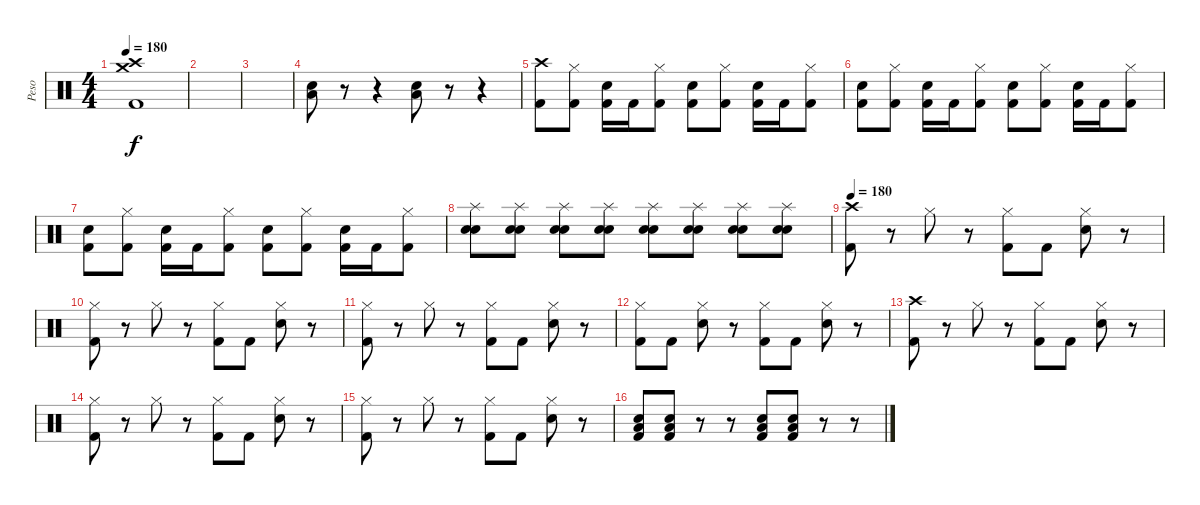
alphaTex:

\track ("Peso" "Peso") {instrument percussion}
\staff {score}
\articulation defaults
\ts (4 4)
\tempo 180
\clef neutral
\ks c
("Crash high (hit)" "Crash medium (hit)" "Kick (hit) 2").1{dy f} |
|
|
("Low Floor Tom (hit)" "Snare (hit) 2").8 r.8 r.4 ("Low Floor Tom (hit)" "Snare (hit) 2").8 r.8 r.4 |
("Crash high (hit)" "Kick (hit) 2").8 ("Hi-Hat (closed)" "Kick (hit) 2").8 ("Snare (hit) 2" "Kick (hit) 2").16 "Kick (hit) 2".16 ("Hi-Hat (closed)" "Kick (hit) 2").8 ("Snare (hit) 2" "Kick (hit) 2").8 ("Hi-Hat (closed)" "Kick (hit) 2").8 ("Snare (hit) 2" "Kick (hit) 2").16 "Kick (hit) 2".16 ("Hi-Hat (closed)" "Kick (hit) 2").8 |
("Snare (hit) 2" "Kick (hit) 2").8 ("Hi-Hat (closed)" "Kick (hit) 2").8 ("Snare (hit) 2" "Kick (hit) 2").16 "Kick (hit) 2".16 ("Hi-Hat (closed)" "Kick (hit) 2").8 ("Snare (hit) 2" "Kick (hit) 2").8 ("Hi-Hat (closed)" "Kick (hit) 2").8 ("Snare (hit) 2" "Kick (hit) 2").16 "Kick (hit) 2".16 ("Hi-Hat (closed)" "Kick (hit) 2").8 |
("Snare (hit) 2" "Kick (hit) 2").8 ("Hi-Hat (closed)" "Kick (hit) 2").8 ("Snare (hit) 2" "Kick (hit) 2").16 "Kick (hit) 2".16 ("Hi-Hat (closed)" "Kick (hit) 2").8 ("Snare (hit) 2" "Kick (hit) 2").8 ("Hi-Hat (closed)" "Kick (hit) 2").8 ("Snare (hit) 2" "Kick (hit) 2").16 "Kick (hit) 2".16 ("Hi-Hat (closed)" "Kick (hit) 2").8 |
("Splash (hit)" "Snare (hit) 2" "Snare (hit) 2").8 ("Splash (hit)" "Snare (hit) 2" "Snare (hit) 2").8 ("Splash (hit)" "Snare (hit) 2" "Snare (hit) 2").8 ("Splash (hit)" "Snare (hit) 2" "Snare (hit) 2").8 ("Splash (hit)" "Snare (hit) 2" "Snare (hit) 2").8 ("Splash (hit)" "Snare (hit) 2" "Snare (hit) 2").8 ("Splash (hit)" "Snare (hit) 2" "Snare (hit) 2").8 ("Splash (hit)" "Snare (hit) 2" "Snare (hit) 2").8 |
\tempo 180
("Crash high (hit)" "Kick (hit) 2").8 r.8 "Hi-Hat (closed)".8 r.8 ("Hi-Hat (closed)" "Kick (hit) 2").8 "Kick (hit) 2".8 ("Hi-Hat (closed)" "Snare (hit) 2").8 r.8 |
("Hi-Hat (closed)" "Kick (hit) 2").8 r.8 "Hi-Hat (closed)".8 r.8 ("Hi-Hat (closed)" "Kick (hit) 2").8 "Kick (hit) 2".8 ("Hi-Hat (closed)" "Snare (hit) 2").8 r.8 |
("Hi-Hat (closed)" "Kick (hit) 2").8 r.8 "Hi-Hat (closed)".8 r.8 ("Hi-Hat (closed)" "Kick (hit) 2").8 "Kick (hit) 2".8 ("Hi-Hat (closed)" "Snare (hit) 2").8 r.8 |
("Hi-Hat (closed)" "Kick (hit) 2").8 "Kick (hit) 2".8 ("Hi-Hat (closed)" "Snare (hit) 2").8 r.8 ("Hi-Hat (closed)" "Kick (hit) 2").8 "Kick (hit) 2".8 ("Hi-Hat (closed)" "Snare (hit) 2").8 r.8 |
("Crash high (hit)" "Kick (hit) 2").8 r.8 "Hi-Hat (closed)".8 r.8 ("Hi-Hat (closed)" "Kick (hit) 2").8 "Kick (hit) 2".8 ("Hi-Hat (closed)" "Snare (hit) 2").8 r.8 |
("Hi-Hat (closed)" "Kick (hit) 2").8 r.8 "Hi-Hat (closed)".8 r.8 ("Hi-Hat (closed)" "Kick (hit) 2").8 "Kick (hit) 2".8 ("Hi-Hat (closed)" "Snare (hit) 2").8 r.8 |
("Hi-Hat (closed)" "Kick (hit) 2").8 r.8 "Hi-Hat (closed)".8 r.8 ("Hi-Hat (closed)" "Kick (hit) 2").8 "Kick (hit) 2".8 ("Hi-Hat (closed)" "Snare (hit) 2").8 r.8 |
("Low Floor Tom (hit)" "Snare (hit) 2" "Kick (hit) 2").8 ("Low Floor Tom (hit)" "Snare (hit) 2" "Kick (hit) 2").8 r.8 r.8 ("Low Floor Tom (hit)" "Snare (hit) 2" "Kick (hit) 2").8 ("Low Floor Tom (hit)" "Snare (hit) 2" "Kick (hit) 2").8 r.8 r.8
